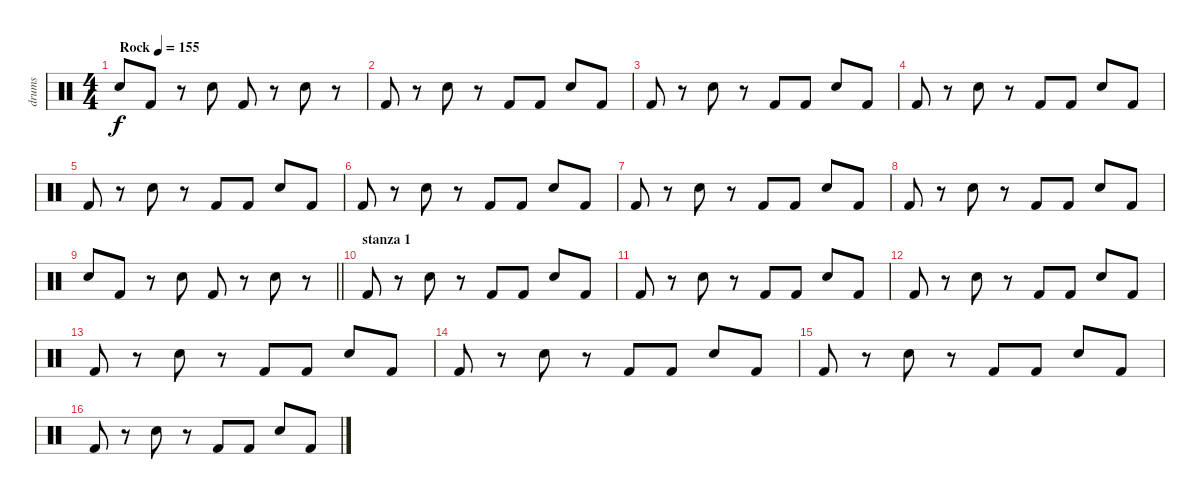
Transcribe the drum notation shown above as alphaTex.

\track ("drums" "drums") {instrument percussion}
\staff {score}
\articulation defaults
\ts (4 4)
\tempo (155 "Rock")
\clef neutral
\ks c "Snare (hit) 2".8{dy f} "Kick (hit) 2".8
r.8 "Snare (hit) 2".8 "Kick (hit) 2".8 r.8 "Snare (hit) 2".8 r.8 |
"Kick (hit) 2".8 r.8 "Snare (hit) 2".8 r.8 "Kick (hit) 2".8 "Kick (hit) 2".8 "Snare (hit) 2".8 "Kick (hit) 2".8 |
"Kick (hit) 2".8 r.8 "Snare (hit) 2".8 r.8 "Kick (hit) 2".8 "Kick (hit) 2".8 "Snare (hit) 2".8 "Kick (hit) 2".8 |
"Kick (hit) 2".8 r.8 "Snare (hit) 2".8 r.8 "Kick (hit) 2".8 "Kick (hit) 2".8 "Snare (hit) 2".8 "Kick (hit) 2".8 |
"Kick (hit) 2".8 r.8 "Snare (hit) 2".8 r.8 "Kick (hit) 2".8 "Kick (hit) 2".8 "Snare (hit) 2".8 "Kick (hit) 2".8 |
"Kick (hit) 2".8 r.8 "Snare (hit) 2".8 r.8 "Kick (hit) 2".8 "Kick (hit) 2".8 "Snare (hit) 2".8 "Kick (hit) 2".8 |
"Kick (hit) 2".8 r.8 "Snare (hit) 2".8 r.8 "Kick (hit) 2".8 "Kick (hit) 2".8 "Snare (hit) 2".8 "Kick (hit) 2".8 |
"Kick (hit) 2".8 r.8 "Snare (hit) 2".8 r.8 "Kick (hit) 2".8 "Kick (hit) 2".8 "Snare (hit) 2".8 "Kick (hit) 2".8 |
\barLineRight lightlight "Snare (hit) 2".8 "Kick (hit) 2".8
r.8 "Snare (hit) 2".8 "Kick (hit) 2".8 r.8 "Snare (hit) 2".8 r.8 |
\section ("" "stanza 1")
"Kick (hit) 2".8 r.8 "Snare (hit) 2".8 r.8 "Kick (hit) 2".8 "Kick (hit) 2".8 "Snare (hit) 2".8 "Kick (hit) 2".8 |
"Kick (hit) 2".8 r.8 "Snare (hit) 2".8 r.8 "Kick (hit) 2".8 "Kick (hit) 2".8 "Snare (hit) 2".8 "Kick (hit) 2".8 |
"Kick (hit) 2".8 r.8 "Snare (hit) 2".8 r.8 "Kick (hit) 2".8 "Kick (hit) 2".8 "Snare (hit) 2".8 "Kick (hit) 2".8 |
"Kick (hit) 2".8 r.8 "Snare (hit) 2".8 r.8 "Kick (hit) 2".8 "Kick (hit) 2".8 "Snare (hit) 2".8 "Kick (hit) 2".8 |
"Kick (hit) 2".8 r.8 "Snare (hit) 2".8 r.8 "Kick (hit) 2".8 "Kick (hit) 2".8 "Snare (hit) 2".8 "Kick (hit) 2".8 |
"Kick (hit) 2".8 r.8 "Snare (hit) 2".8 r.8 "Kick (hit) 2".8 "Kick (hit) 2".8 "Snare (hit) 2".8 "Kick (hit) 2".8 |
"Kick (hit) 2".8 r.8 "Snare (hit) 2".8 r.8 "Kick (hit) 2".8 "Kick (hit) 2".8 "Snare (hit) 2".8 "Kick (hit) 2".8
